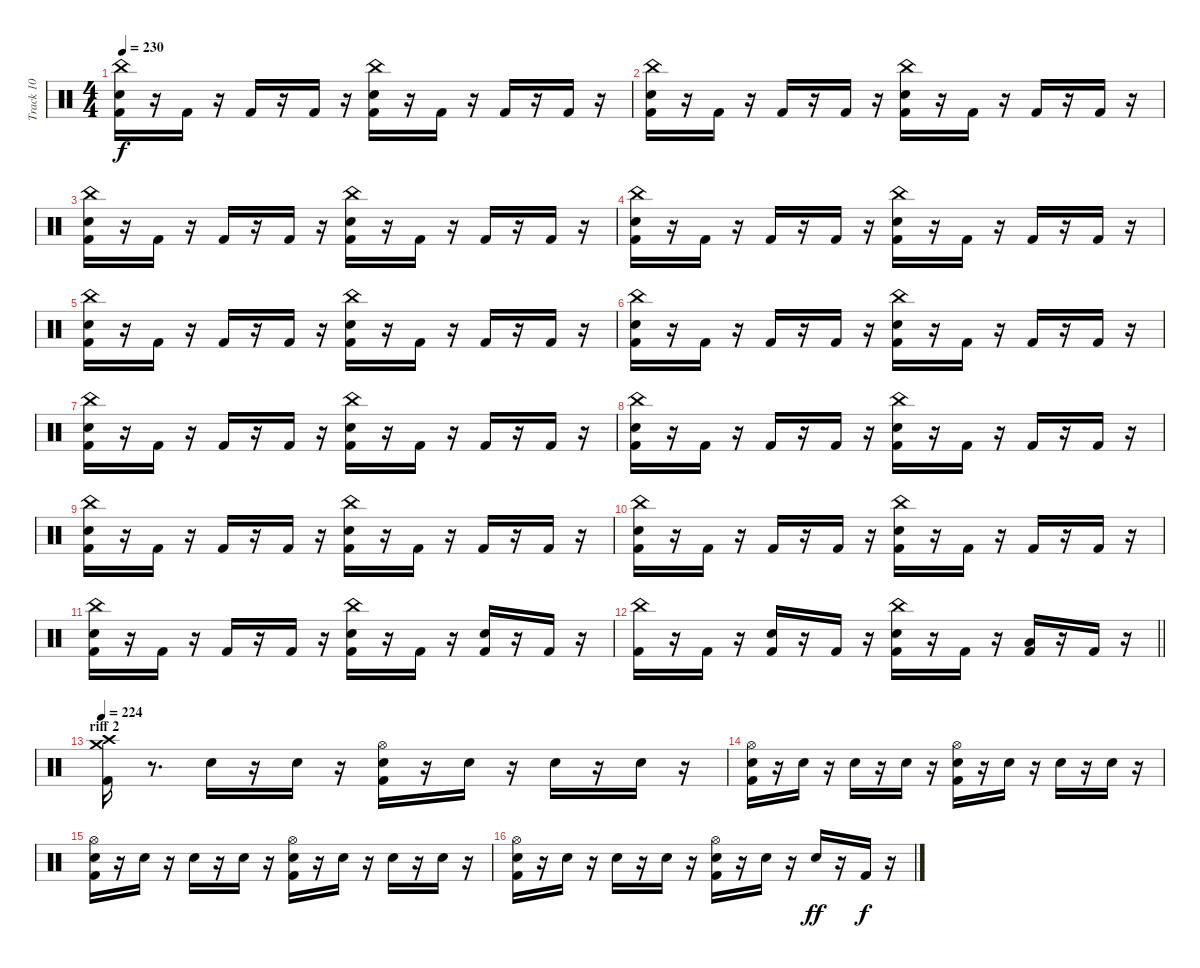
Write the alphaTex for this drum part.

\track ("Track 10" "Track 10") {instrument percussion}
\staff {score}
\articulation defaults
\ts (4 4)
\tempo 230
\clef neutral
\ks c
("Kick (hit) 2" "Snare (hit) 2" "China (hit)").16{dy f} r.16 "Kick (hit) 2".16 r.16 "Kick (hit) 2".16 r.16 "Kick (hit) 2".16 r.16 ("Kick (hit) 2" "Snare (hit) 2" "China (hit)").16 r.16 "Kick (hit) 2".16 r.16 "Kick (hit) 2".16 r.16 "Kick (hit) 2".16 r.16 |
("Kick (hit) 2" "Snare (hit) 2" "China (hit)").16 r.16 "Kick (hit) 2".16 r.16 "Kick (hit) 2".16 r.16 "Kick (hit) 2".16 r.16 ("Kick (hit) 2" "Snare (hit) 2" "China (hit)").16 r.16 "Kick (hit) 2".16 r.16 "Kick (hit) 2".16 r.16 "Kick (hit) 2".16 r.16 |
("Kick (hit) 2" "Snare (hit) 2" "China (hit)").16 r.16 "Kick (hit) 2".16 r.16 "Kick (hit) 2".16 r.16 "Kick (hit) 2".16 r.16 ("Kick (hit) 2" "Snare (hit) 2" "China (hit)").16 r.16 "Kick (hit) 2".16 r.16 "Kick (hit) 2".16 r.16 "Kick (hit) 2".16 r.16 |
("Kick (hit) 2" "Snare (hit) 2" "China (hit)").16 r.16 "Kick (hit) 2".16 r.16 "Kick (hit) 2".16 r.16 "Kick (hit) 2".16 r.16 ("Kick (hit) 2" "Snare (hit) 2" "China (hit)").16 r.16 "Kick (hit) 2".16 r.16 "Kick (hit) 2".16 r.16 "Kick (hit) 2".16 r.16 |
("Kick (hit) 2" "Snare (hit) 2" "China (hit)").16 r.16 "Kick (hit) 2".16 r.16 "Kick (hit) 2".16 r.16 "Kick (hit) 2".16 r.16 ("Kick (hit) 2" "Snare (hit) 2" "China (hit)").16 r.16 "Kick (hit) 2".16 r.16 "Kick (hit) 2".16 r.16 "Kick (hit) 2".16 r.16 |
("Kick (hit) 2" "Snare (hit) 2" "China (hit)").16 r.16 "Kick (hit) 2".16 r.16 "Kick (hit) 2".16 r.16 "Kick (hit) 2".16 r.16 ("Kick (hit) 2" "Snare (hit) 2" "China (hit)").16 r.16 "Kick (hit) 2".16 r.16 "Kick (hit) 2".16 r.16 "Kick (hit) 2".16 r.16 |
("Kick (hit) 2" "Snare (hit) 2" "China (hit)").16 r.16 "Kick (hit) 2".16 r.16 "Kick (hit) 2".16 r.16 "Kick (hit) 2".16 r.16 ("Kick (hit) 2" "Snare (hit) 2" "China (hit)").16 r.16 "Kick (hit) 2".16 r.16 "Kick (hit) 2".16 r.16 "Kick (hit) 2".16 r.16 |
("Kick (hit) 2" "Snare (hit) 2" "China (hit)").16 r.16 "Kick (hit) 2".16 r.16 "Kick (hit) 2".16 r.16 "Kick (hit) 2".16 r.16 ("Kick (hit) 2" "Snare (hit) 2" "China (hit)").16 r.16 "Kick (hit) 2".16 r.16 "Kick (hit) 2".16 r.16 "Kick (hit) 2".16 r.16 |
("Kick (hit) 2" "Snare (hit) 2" "China (hit)").16 r.16 "Kick (hit) 2".16 r.16 "Kick (hit) 2".16 r.16 "Kick (hit) 2".16 r.16 ("Kick (hit) 2" "Snare (hit) 2" "China (hit)").16 r.16 "Kick (hit) 2".16 r.16 "Kick (hit) 2".16 r.16 "Kick (hit) 2".16 r.16 |
("Kick (hit) 2" "Snare (hit) 2" "China (hit)").16 r.16 "Kick (hit) 2".16 r.16 "Kick (hit) 2".16 r.16 "Kick (hit) 2".16 r.16 ("Kick (hit) 2" "Snare (hit) 2" "China (hit)").16 r.16 "Kick (hit) 2".16 r.16 "Kick (hit) 2".16 r.16 "Kick (hit) 2".16 r.16 |
("Kick (hit) 2" "Snare (hit) 2" "China (hit)").16 r.16 "Kick (hit) 2".16 r.16 "Kick (hit) 2".16 r.16 "Kick (hit) 2".16 r.16 ("Kick (hit) 2" "Snare (hit) 2" "China (hit)").16 r.16 "Kick (hit) 2".16 r.16 ("Kick (hit) 2" "Snare (hit) 2").16 r.16 "Kick (hit) 2".16 r.16 |
\barLineRight lightlight
("Kick (hit) 2" "China (hit)").16 r.16 "Kick (hit) 2".16 r.16 ("Kick (hit) 2" "Snare (hit) 2").16 r.16 "Kick (hit) 2".16 r.16 ("Kick (hit) 2" "Snare (hit) 2" "China (hit)").16 r.16 "Kick (hit) 2".16 r.16 ("Kick (hit) 2" "Low Tom (hit)").16 r.16 "Kick (hit) 2".16 r.16 |
\section ("" "riff 2")
\tempo 224
("Kick (hit) 2" "Crash high (hit)" "Crash medium (hit)").16 r.8{d} "Snare (hit) 2".16 r.16 "Snare (hit) 2".16 r.16 ("Kick (hit) 2" "Snare (hit) 2" "Hi-Hat (open)").16 r.16 "Snare (hit) 2".16 r.16 "Snare (hit) 2".16 r.16 "Snare (hit) 2".16 r.16 |
("Kick (hit) 2" "Snare (hit) 2" "Hi-Hat (open)").16 r.16 "Snare (hit) 2".16 r.16 "Snare (hit) 2".16 r.16 "Snare (hit) 2".16 r.16 ("Kick (hit) 2" "Snare (hit) 2" "Hi-Hat (open)").16 r.16 "Snare (hit) 2".16 r.16 "Snare (hit) 2".16 r.16 "Snare (hit) 2".16 r.16 |
("Kick (hit) 2" "Snare (hit) 2" "Hi-Hat (open)").16 r.16 "Snare (hit) 2".16 r.16 "Snare (hit) 2".16 r.16 "Snare (hit) 2".16 r.16 ("Kick (hit) 2" "Snare (hit) 2" "Hi-Hat (open)").16 r.16 "Snare (hit) 2".16 r.16 "Snare (hit) 2".16 r.16 "Snare (hit) 2".16 r.16 |
("Kick (hit) 2" "Snare (hit) 2" "Hi-Hat (open)").16 r.16 "Snare (hit) 2".16 r.16 "Snare (hit) 2".16 r.16 "Snare (hit) 2".16 r.16 ("Kick (hit) 2" "Snare (hit) 2" "Hi-Hat (open)").16 r.16 "Snare (hit) 2".16 r.16 "Snare (hit) 2".16{dy ff} r.16 "Kick (hit) 2".16{dy f} r.16
